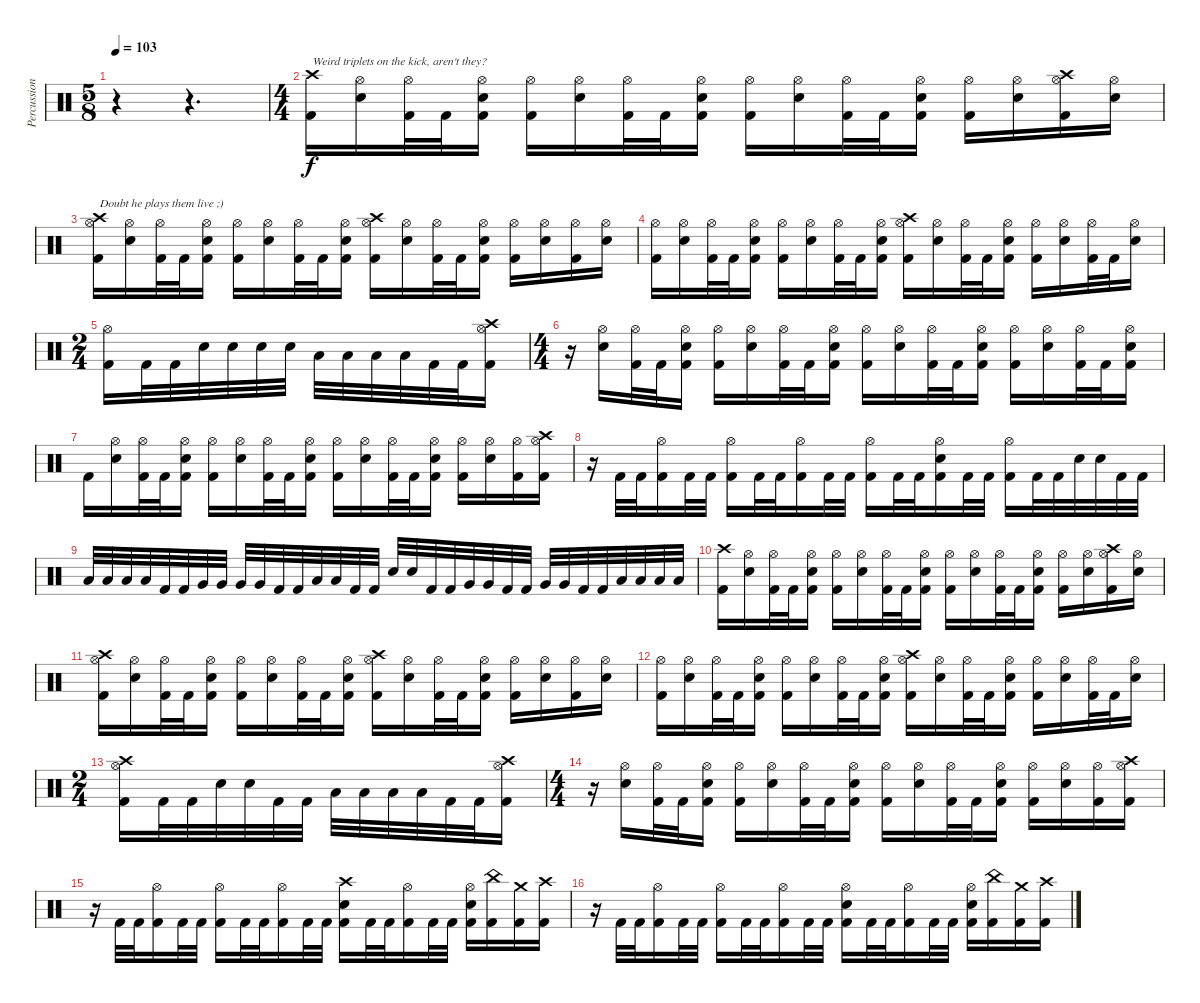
\track ("Percussion" "Percussion") {instrument percussion}
\staff {score}
\articulation defaults
\ts (5 8)
\tempo 103
\clef neutral
\ks c
r.4{dy f} r.4{d} |
\ts (4 4)
("Crash high (hit)" "Kick (hit) 2").16{txt "Weird triplets on the kick, aren't they?"} ("Hi-Hat (open)" "Snare (hit) 2").16 ("Hi-Hat (open)" "Kick (hit) 2").32 "Kick (hit) 2".32 ("Hi-Hat (open)" "Snare (hit) 2" "Kick (hit) 2").16 ("Hi-Hat (open)" "Kick (hit) 2").16 ("Hi-Hat (open)" "Snare (hit) 2").16 ("Hi-Hat (open)" "Kick (hit) 2").32 "Kick (hit) 2".32 ("Hi-Hat (open)" "Snare (hit) 2" "Kick (hit) 2").16 ("Hi-Hat (open)" "Kick (hit) 2").16 ("Hi-Hat (open)" "Snare (hit) 2").16 ("Hi-Hat (open)" "Kick (hit) 2").32 "Kick (hit) 2".32 ("Hi-Hat (open)" "Snare (hit) 2" "Kick (hit) 2").16 ("Hi-Hat (open)" "Kick (hit) 2").16 ("Hi-Hat (open)" "Snare (hit) 2").16 ("Crash high (hit)" "Hi-Hat (open)" "Kick (hit) 2").16 ("Hi-Hat (open)" "Snare (hit) 2").16 |
("Crash high (hit)" "Hi-Hat (open)" "Kick (hit) 2").16{txt "Doubt he plays them live ;)"} ("Hi-Hat (open)" "Snare (hit) 2").16 ("Hi-Hat (open)" "Kick (hit) 2").32 "Kick (hit) 2".32 ("Hi-Hat (open)" "Snare (hit) 2" "Kick (hit) 2").16 ("Hi-Hat (open)" "Kick (hit) 2").16 ("Hi-Hat (open)" "Snare (hit) 2").16 ("Hi-Hat (open)" "Kick (hit) 2").32 "Kick (hit) 2".32 ("Hi-Hat (open)" "Snare (hit) 2" "Kick (hit) 2").16 ("Crash high (hit)" "Hi-Hat (open)" "Kick (hit) 2").16 ("Hi-Hat (open)" "Snare (hit) 2").16 ("Hi-Hat (open)" "Kick (hit) 2").32 "Kick (hit) 2".32 ("Hi-Hat (open)" "Snare (hit) 2" "Kick (hit) 2").16 ("Hi-Hat (open)" "Kick (hit) 2").16 ("Hi-Hat (open)" "Snare (hit) 2").16 ("Hi-Hat (open)" "Kick (hit) 2").16 ("Hi-Hat (open)" "Snare (hit) 2").16 |
("Hi-Hat (open)" "Kick (hit) 2").16 ("Hi-Hat (open)" "Snare (hit) 2").16 ("Hi-Hat (open)" "Kick (hit) 2").32 "Kick (hit) 2".32 ("Hi-Hat (open)" "Snare (hit) 2" "Kick (hit) 2").16 ("Hi-Hat (open)" "Kick (hit) 2").16 ("Hi-Hat (open)" "Snare (hit) 2").16 ("Hi-Hat (open)" "Kick (hit) 2").32 "Kick (hit) 2".32 ("Hi-Hat (open)" "Snare (hit) 2" "Kick (hit) 2").16 ("Crash high (hit)" "Hi-Hat (open)" "Kick (hit) 2").16 ("Hi-Hat (open)" "Snare (hit) 2").16 ("Hi-Hat (open)" "Kick (hit) 2").32 "Kick (hit) 2".32 ("Hi-Hat (open)" "Snare (hit) 2" "Kick (hit) 2").16 ("Hi-Hat (open)" "Kick (hit) 2").16 ("Hi-Hat (open)" "Snare (hit) 2").16 ("Hi-Hat (open)" "Kick (hit) 2").32 "Kick (hit) 2".32 ("Hi-Hat (open)" "Snare (hit) 2").16 |
\ts (2 4)
("Hi-Hat (open)" "Kick (hit) 2").16 "Kick (hit) 2".32 "Kick (hit) 2".32 "Snare (hit) 2".32 "Snare (hit) 2".32 "Snare (hit) 2".32 "Snare (hit) 2".32 "Low Tom (hit)".32 "Low Tom (hit)".32 "Low Tom (hit)".32 "Low Tom (hit)".32 "Kick (hit) 2".32 "Kick (hit) 2".32 ("Crash high (hit)" "Hi-Hat (open)" "Kick (hit) 2").16 |
\ts (4 4)
r.16 ("Hi-Hat (open)" "Snare (hit) 2").16 ("Hi-Hat (open)" "Kick (hit) 2").32 "Kick (hit) 2".32 ("Hi-Hat (open)" "Snare (hit) 2" "Kick (hit) 2").16 ("Hi-Hat (open)" "Kick (hit) 2").16 ("Hi-Hat (open)" "Snare (hit) 2").16 ("Hi-Hat (open)" "Kick (hit) 2").32 "Kick (hit) 2".32 ("Hi-Hat (open)" "Snare (hit) 2" "Kick (hit) 2").16 ("Hi-Hat (open)" "Kick (hit) 2").16 ("Hi-Hat (open)" "Snare (hit) 2").16 ("Hi-Hat (open)" "Kick (hit) 2").32 "Kick (hit) 2".32 ("Hi-Hat (open)" "Snare (hit) 2" "Kick (hit) 2").16 ("Hi-Hat (open)" "Kick (hit) 2").16 ("Hi-Hat (open)" "Snare (hit) 2").16 ("Hi-Hat (open)" "Kick (hit) 2").32 "Kick (hit) 2".32 ("Hi-Hat (open)" "Snare (hit) 2" "Kick (hit) 2").16 |
"Kick (hit) 2".16 ("Hi-Hat (open)" "Snare (hit) 2").16 ("Hi-Hat (open)" "Kick (hit) 2").32 "Kick (hit) 2".32 ("Hi-Hat (open)" "Snare (hit) 2" "Kick (hit) 2").16 ("Hi-Hat (open)" "Kick (hit) 2").16 ("Hi-Hat (open)" "Snare (hit) 2").16 ("Hi-Hat (open)" "Kick (hit) 2").32 "Kick (hit) 2".32 ("Hi-Hat (open)" "Snare (hit) 2" "Kick (hit) 2").16 ("Hi-Hat (open)" "Kick (hit) 2").16 ("Hi-Hat (open)" "Snare (hit) 2").16 ("Hi-Hat (open)" "Kick (hit) 2").32 "Kick (hit) 2".32 ("Hi-Hat (open)" "Snare (hit) 2" "Kick (hit) 2").16 ("Hi-Hat (open)" "Kick (hit) 2").16 ("Hi-Hat (open)" "Snare (hit) 2").16 ("Hi-Hat (open)" "Kick (hit) 2").16 ("Crash high (hit)" "Hi-Hat (open)" "Kick (hit) 2").16 |
r.16 "Kick (hit) 2".32 "Kick (hit) 2".32 ("Hi-Hat (open)" "Kick (hit) 2").16 "Kick (hit) 2".32 "Kick (hit) 2".32 ("Hi-Hat (open)" "Kick (hit) 2").16 "Kick (hit) 2".32 "Kick (hit) 2".32 ("Hi-Hat (open)" "Kick (hit) 2").16 "Kick (hit) 2".32 "Kick (hit) 2".32 ("Hi-Hat (open)" "Kick (hit) 2").16 "Kick (hit) 2".32 "Kick (hit) 2".32 ("Hi-Hat (open)" "Snare (hit) 2" "Kick (hit) 2").16 "Kick (hit) 2".32 "Kick (hit) 2".32 ("Hi-Hat (open)" "Kick (hit) 2").16 "Kick (hit) 2".32 "Kick (hit) 2".32 "Snare (hit) 2".32 "Snare (hit) 2".32 "Kick (hit) 2".32 "Kick (hit) 2".32 |
"Low Tom (hit)".32 "Low Tom (hit)".32 "Low Tom (hit)".32 "Low Tom (hit)".32 "Kick (hit) 2".32 "Kick (hit) 2".32 "Very Low Tom (hit)".32 "Very Low Tom (hit)".32 "Very Low Tom (hit)".32 "Very Low Tom (hit)".32 "Kick (hit) 2".32 "Kick (hit) 2".32 "Low Floor Tom (hit)".32 "Low Floor Tom (hit)".32 "Kick (hit) 2".32 "Kick (hit) 2".32 "Snare (hit) 2".32 "Snare (hit) 2".32 "Kick (hit) 2".32 "Kick (hit) 2".32 "Very Low Tom (hit)".32 "Very Low Tom (hit)".32 "Kick (hit) 2".32 "Kick (hit) 2".32 "Very Low Tom (hit)".32 "Very Low Tom (hit)".32 "Kick (hit) 2".32 "Kick (hit) 2".32 "Low Floor Tom (hit)".32 "Low Floor Tom (hit)".32 "Low Floor Tom (hit)".32 "Low Floor Tom (hit)".32 |
("Crash high (hit)" "Kick (hit) 2").16 ("Hi-Hat (open)" "Snare (hit) 2").16 ("Hi-Hat (open)" "Kick (hit) 2").32 "Kick (hit) 2".32 ("Hi-Hat (open)" "Snare (hit) 2" "Kick (hit) 2").16 ("Hi-Hat (open)" "Kick (hit) 2").16 ("Hi-Hat (open)" "Snare (hit) 2").16 ("Hi-Hat (open)" "Kick (hit) 2").32 "Kick (hit) 2".32 ("Hi-Hat (open)" "Snare (hit) 2" "Kick (hit) 2").16 ("Hi-Hat (open)" "Kick (hit) 2").16 ("Hi-Hat (open)" "Snare (hit) 2").16 ("Hi-Hat (open)" "Kick (hit) 2").32 "Kick (hit) 2".32 ("Hi-Hat (open)" "Snare (hit) 2" "Kick (hit) 2").16 ("Hi-Hat (open)" "Kick (hit) 2").16 ("Hi-Hat (open)" "Snare (hit) 2").16 ("Crash high (hit)" "Hi-Hat (open)" "Kick (hit) 2").16 ("Hi-Hat (open)" "Snare (hit) 2").16 |
("Crash high (hit)" "Hi-Hat (open)" "Kick (hit) 2").16 ("Hi-Hat (open)" "Snare (hit) 2").16 ("Hi-Hat (open)" "Kick (hit) 2").32 "Kick (hit) 2".32 ("Hi-Hat (open)" "Snare (hit) 2" "Kick (hit) 2").16 ("Hi-Hat (open)" "Kick (hit) 2").16 ("Hi-Hat (open)" "Snare (hit) 2").16 ("Hi-Hat (open)" "Kick (hit) 2").32 "Kick (hit) 2".32 ("Hi-Hat (open)" "Snare (hit) 2" "Kick (hit) 2").16 ("Crash high (hit)" "Hi-Hat (open)" "Kick (hit) 2").16 ("Hi-Hat (open)" "Snare (hit) 2").16 ("Hi-Hat (open)" "Kick (hit) 2").32 "Kick (hit) 2".32 ("Hi-Hat (open)" "Snare (hit) 2" "Kick (hit) 2").16 ("Hi-Hat (open)" "Kick (hit) 2").16 ("Hi-Hat (open)" "Snare (hit) 2").16 ("Hi-Hat (open)" "Kick (hit) 2").16 ("Hi-Hat (open)" "Snare (hit) 2").16 |
("Hi-Hat (open)" "Kick (hit) 2").16 ("Hi-Hat (open)" "Snare (hit) 2").16 ("Hi-Hat (open)" "Kick (hit) 2").32 "Kick (hit) 2".32 ("Hi-Hat (open)" "Snare (hit) 2" "Kick (hit) 2").16 ("Hi-Hat (open)" "Kick (hit) 2").16 ("Hi-Hat (open)" "Snare (hit) 2").16 ("Hi-Hat (open)" "Kick (hit) 2").32 "Kick (hit) 2".32 ("Hi-Hat (open)" "Snare (hit) 2" "Kick (hit) 2").16 ("Crash high (hit)" "Hi-Hat (open)" "Kick (hit) 2").16 ("Hi-Hat (open)" "Snare (hit) 2").16 ("Hi-Hat (open)" "Kick (hit) 2").32 "Kick (hit) 2".32 ("Hi-Hat (open)" "Snare (hit) 2" "Kick (hit) 2").16 ("Hi-Hat (open)" "Kick (hit) 2").16 ("Hi-Hat (open)" "Snare (hit) 2").16 ("Hi-Hat (open)" "Kick (hit) 2").32 "Kick (hit) 2".32 ("Hi-Hat (open)" "Snare (hit) 2").16 |
\ts (2 4)
("Crash high (hit)" "Hi-Hat (open)" "Kick (hit) 2").16 "Kick (hit) 2".32 "Kick (hit) 2".32 "Snare (hit) 2".32 "Snare (hit) 2".32 "Kick (hit) 2".32 "Kick (hit) 2".32 "Low Tom (hit)".32 "Low Tom (hit)".32 "Low Tom (hit)".32 "Low Tom (hit)".32 "Kick (hit) 2".32 "Kick (hit) 2".32 ("Crash high (hit)" "Hi-Hat (open)" "Kick (hit) 2").16 |
\ts (4 4)
r.16 ("Hi-Hat (open)" "Snare (hit) 2").16 ("Hi-Hat (open)" "Kick (hit) 2").32 "Kick (hit) 2".32 ("Hi-Hat (open)" "Snare (hit) 2" "Kick (hit) 2").16 ("Hi-Hat (open)" "Kick (hit) 2").16 ("Hi-Hat (open)" "Snare (hit) 2").16 ("Hi-Hat (open)" "Kick (hit) 2").32 "Kick (hit) 2".32 ("Hi-Hat (open)" "Snare (hit) 2" "Kick (hit) 2").16 ("Hi-Hat (open)" "Kick (hit) 2").16 ("Hi-Hat (open)" "Snare (hit) 2").16 ("Hi-Hat (open)" "Kick (hit) 2").32 "Kick (hit) 2".32 ("Hi-Hat (open)" "Snare (hit) 2" "Kick (hit) 2").16 ("Hi-Hat (open)" "Kick (hit) 2").16 ("Hi-Hat (open)" "Snare (hit) 2").16 ("Hi-Hat (open)" "Kick (hit) 2").16 ("Crash high (hit)" "Hi-Hat (open)" "Kick (hit) 2").16 |
r.16 "Kick (hit) 2".32 "Kick (hit) 2".32 ("Hi-Hat (open)" "Kick (hit) 2").16 "Kick (hit) 2".32 "Kick (hit) 2".32 ("Hi-Hat (open)" "Kick (hit) 2").16 "Kick (hit) 2".32 "Kick (hit) 2".32 ("Hi-Hat (open)" "Kick (hit) 2").16 "Kick (hit) 2".32 "Kick (hit) 2".32 ("Crash high (hit)" "Snare (hit) 2" "Kick (hit) 2").16 "Kick (hit) 2".32 "Kick (hit) 2".32 ("Hi-Hat (open)" "Kick (hit) 2").16 "Kick (hit) 2".32 "Kick (hit) 2".32 ("Hi-Hat (open)" "Snare (hit) 2" "Kick (hit) 2").16 ("China (hit)" "Kick (hit) 2").16 ("Crash medium (hit)" "Kick (hit) 2").16 ("Crash high (hit)" "Kick (hit) 2").16 |
r.16 "Kick (hit) 2".32 "Kick (hit) 2".32 ("Hi-Hat (open)" "Kick (hit) 2").16 "Kick (hit) 2".32 "Kick (hit) 2".32 ("Hi-Hat (open)" "Kick (hit) 2").16 "Kick (hit) 2".32 "Kick (hit) 2".32 ("Hi-Hat (open)" "Kick (hit) 2").16 "Kick (hit) 2".32 "Kick (hit) 2".32 ("Hi-Hat (open)" "Snare (hit) 2" "Kick (hit) 2").16 "Kick (hit) 2".32 "Kick (hit) 2".32 ("Hi-Hat (open)" "Kick (hit) 2").16 "Kick (hit) 2".32 "Kick (hit) 2".32 ("Hi-Hat (open)" "Snare (hit) 2" "Kick (hit) 2").16 ("China (hit)" "Kick (hit) 2").16 ("Crash medium (hit)" "Kick (hit) 2").16 ("Crash high (hit)" "Kick (hit) 2").16
